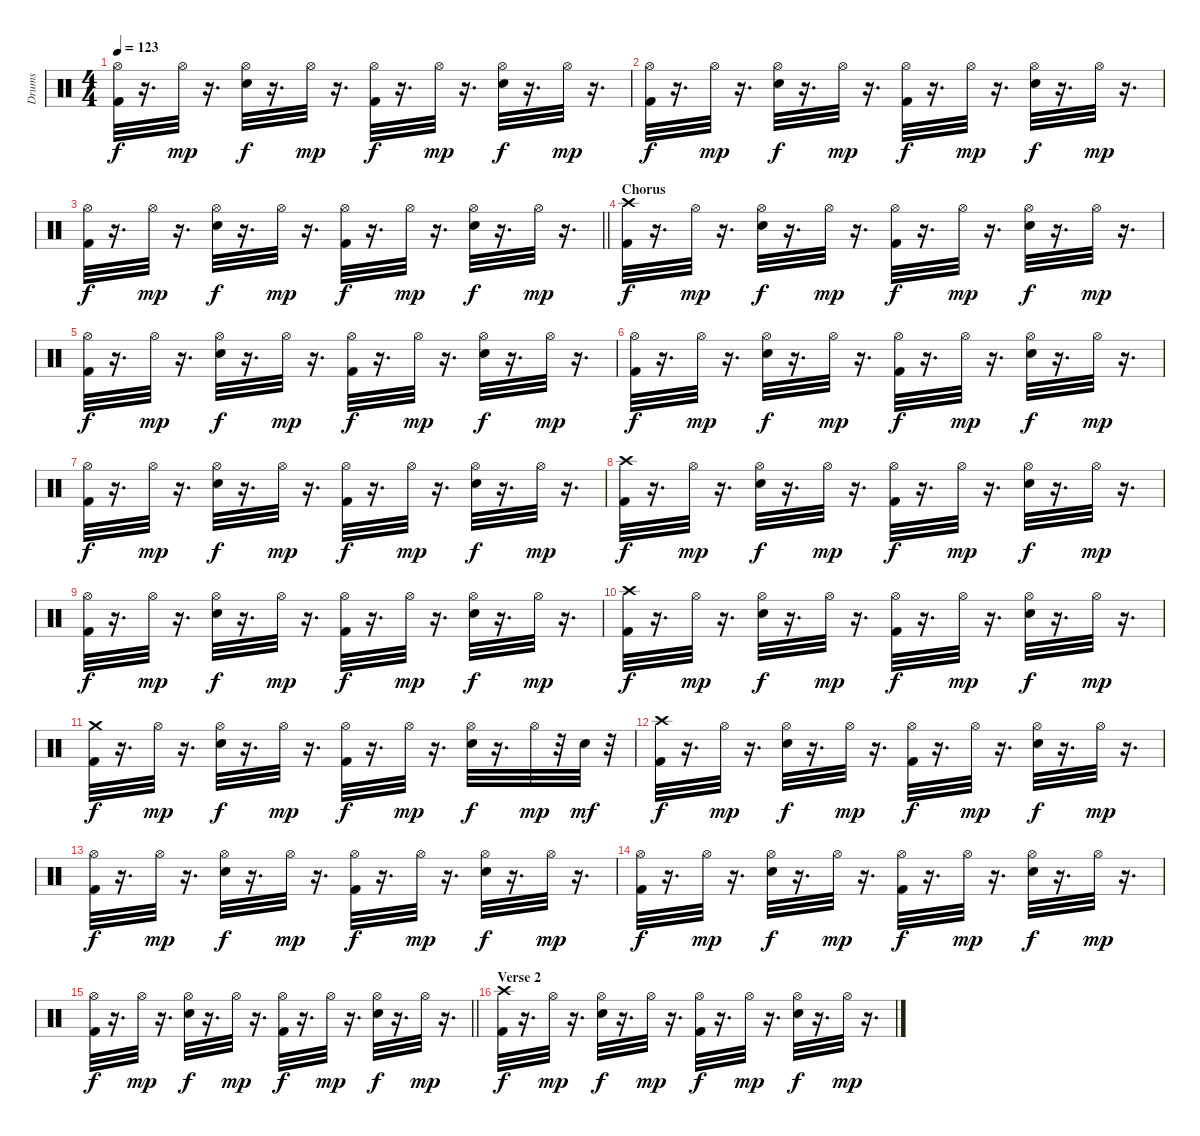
\track ("Drums" "Drums") {instrument percussion}
\staff {score}
\articulation defaults
\ts (4 4)
\tempo 123
\clef neutral
\ks c
("Hi-Hat (open)" "Kick (hit) 2").32{dy f} r.16{d} "Hi-Hat (open)".32{dy mp} r.16{d} ("Hi-Hat (open)" "Electric Snare (hit)").32{dy f} r.16{d} "Hi-Hat (open)".32{dy mp} r.16{d} ("Hi-Hat (open)" "Kick (hit) 2").32{dy f} r.16{d} "Hi-Hat (open)".32{dy mp} r.16{d} ("Hi-Hat (open)" "Electric Snare (hit)").32{dy f} r.16{d} "Hi-Hat (open)".32{dy mp} r.16{d} |
("Hi-Hat (open)" "Kick (hit) 2").32{dy f} r.16{d} "Hi-Hat (open)".32{dy mp} r.16{d} ("Hi-Hat (open)" "Electric Snare (hit)").32{dy f} r.16{d} "Hi-Hat (open)".32{dy mp} r.16{d} ("Hi-Hat (open)" "Kick (hit) 2").32{dy f} r.16{d} "Hi-Hat (open)".32{dy mp} r.16{d} ("Hi-Hat (open)" "Electric Snare (hit)").32{dy f} r.16{d} "Hi-Hat (open)".32{dy mp} r.16{d} |
\barLineRight lightlight
("Hi-Hat (open)" "Kick (hit) 2").32{dy f} r.16{d} "Hi-Hat (open)".32{dy mp} r.16{d} ("Hi-Hat (open)" "Electric Snare (hit)").32{dy f} r.16{d} "Hi-Hat (open)".32{dy mp} r.16{d} ("Hi-Hat (open)" "Kick (hit) 2").32{dy f} r.16{d} "Hi-Hat (open)".32{dy mp} r.16{d} ("Hi-Hat (open)" "Electric Snare (hit)").32{dy f} r.16{d} "Hi-Hat (open)".32{dy mp} r.16{d} |
\section ("" "Chorus ")
("Crash high (hit)" "Kick (hit) 2").32{dy f} r.16{d} "Hi-Hat (open)".32{dy mp} r.16{d} ("Hi-Hat (open)" "Electric Snare (hit)").32{dy f} r.16{d} "Hi-Hat (open)".32{dy mp} r.16{d} ("Kick (hit) 2" "Hi-Hat (open)").32{dy f} r.16{d} "Hi-Hat (open)".32{dy mp} r.16{d} ("Hi-Hat (open)" "Electric Snare (hit)").32{dy f} r.16{d} "Hi-Hat (open)".32{dy mp} r.16{d} |
("Hi-Hat (open)" "Kick (hit) 2").32{dy f} r.16{d} "Hi-Hat (open)".32{dy mp} r.16{d} ("Hi-Hat (open)" "Electric Snare (hit)").32{dy f} r.16{d} "Hi-Hat (open)".32{dy mp} r.16{d} ("Hi-Hat (open)" "Kick (hit) 2").32{dy f} r.16{d} "Hi-Hat (open)".32{dy mp} r.16{d} ("Hi-Hat (open)" "Electric Snare (hit)").32{dy f} r.16{d} "Hi-Hat (open)".32{dy mp} r.16{d} |
("Hi-Hat (open)" "Kick (hit) 2").32{dy f} r.16{d} "Hi-Hat (open)".32{dy mp} r.16{d} ("Hi-Hat (open)" "Electric Snare (hit)").32{dy f} r.16{d} "Hi-Hat (open)".32{dy mp} r.16{d} ("Hi-Hat (open)" "Kick (hit) 2").32{dy f} r.16{d} "Hi-Hat (open)".32{dy mp} r.16{d} ("Hi-Hat (open)" "Electric Snare (hit)").32{dy f} r.16{d} "Hi-Hat (open)".32{dy mp} r.16{d} |
("Hi-Hat (open)" "Kick (hit) 2").32{dy f} r.16{d} "Hi-Hat (open)".32{dy mp} r.16{d} ("Hi-Hat (open)" "Electric Snare (hit)").32{dy f} r.16{d} "Hi-Hat (open)".32{dy mp} r.16{d} ("Hi-Hat (open)" "Kick (hit) 2").32{dy f} r.16{d} "Hi-Hat (open)".32{dy mp} r.16{d} ("Hi-Hat (open)" "Electric Snare (hit)").32{dy f} r.16{d} "Hi-Hat (open)".32{dy mp} r.16{d} |
("Crash high (hit)" "Kick (hit) 2").32{dy f} r.16{d} "Hi-Hat (open)".32{dy mp} r.16{d} ("Hi-Hat (open)" "Electric Snare (hit)").32{dy f} r.16{d} "Hi-Hat (open)".32{dy mp} r.16{d} ("Kick (hit) 2" "Hi-Hat (open)").32{dy f} r.16{d} "Hi-Hat (open)".32{dy mp} r.16{d} ("Hi-Hat (open)" "Electric Snare (hit)").32{dy f} r.16{d} "Hi-Hat (open)".32{dy mp} r.16{d} |
("Hi-Hat (open)" "Kick (hit) 2").32{dy f} r.16{d} "Hi-Hat (open)".32{dy mp} r.16{d} ("Hi-Hat (open)" "Electric Snare (hit)").32{dy f} r.16{d} "Hi-Hat (open)".32{dy mp} r.16{d} ("Hi-Hat (open)" "Kick (hit) 2").32{dy f} r.16{d} "Hi-Hat (open)".32{dy mp} r.16{d} ("Hi-Hat (open)" "Electric Snare (hit)").32{dy f} r.16{d} "Hi-Hat (open)".32{dy mp} r.16{d} |
("Crash high (hit)" "Kick (hit) 2").32{dy f} r.16{d} "Hi-Hat (open)".32{dy mp} r.16{d} ("Hi-Hat (open)" "Electric Snare (hit)").32{dy f} r.16{d} "Hi-Hat (open)".32{dy mp} r.16{d} ("Hi-Hat (open)" "Kick (hit) 2").32{dy f} r.16{d} "Hi-Hat (open)".32{dy mp} r.16{d} ("Hi-Hat (open)" "Electric Snare (hit)").32{dy f} r.16{d} "Hi-Hat (open)".32{dy mp} r.16{d} |
("Crash medium (hit)" "Kick (hit) 2").32{dy f} r.16{d} "Hi-Hat (open)".32{dy mp} r.16{d} ("Hi-Hat (open)" "Electric Snare (hit)").32{dy f} r.16{d} "Hi-Hat (open)".32{dy mp} r.16{d} ("Hi-Hat (open)" "Kick (hit) 2").32{dy f} r.16{d} "Hi-Hat (open)".32{dy mp} r.16{d} ("Hi-Hat (open)" "Electric Snare (hit)").32{dy f} r.16{d} "Hi-Hat (open)".32{dy mp} r.32 "Electric Snare (hit)".32{dy mf} r.32 |
("Crash high (hit)" "Kick (hit) 2").32{dy f} r.16{d} "Hi-Hat (open)".32{dy mp} r.16{d} ("Hi-Hat (open)" "Electric Snare (hit)").32{dy f} r.16{d} "Hi-Hat (open)".32{dy mp} r.16{d} ("Hi-Hat (open)" "Kick (hit) 2").32{dy f} r.16{d} "Hi-Hat (open)".32{dy mp} r.16{d} ("Hi-Hat (open)" "Electric Snare (hit)").32{dy f} r.16{d} "Hi-Hat (open)".32{dy mp} r.16{d} |
("Hi-Hat (open)" "Kick (hit) 2").32{dy f} r.16{d} "Hi-Hat (open)".32{dy mp} r.16{d} ("Hi-Hat (open)" "Electric Snare (hit)").32{dy f} r.16{d} "Hi-Hat (open)".32{dy mp} r.16{d} ("Hi-Hat (open)" "Kick (hit) 2").32{dy f} r.16{d} "Hi-Hat (open)".32{dy mp} r.16{d} ("Hi-Hat (open)" "Electric Snare (hit)").32{dy f} r.16{d} "Hi-Hat (open)".32{dy mp} r.16{d} |
("Hi-Hat (open)" "Kick (hit) 2").32{dy f} r.16{d} "Hi-Hat (open)".32{dy mp} r.16{d} ("Hi-Hat (open)" "Electric Snare (hit)").32{dy f} r.16{d} "Hi-Hat (open)".32{dy mp} r.16{d} ("Hi-Hat (open)" "Kick (hit) 2").32{dy f} r.16{d} "Hi-Hat (open)".32{dy mp} r.16{d} ("Hi-Hat (open)" "Electric Snare (hit)").32{dy f} r.16{d} "Hi-Hat (open)".32{dy mp} r.16{d} |
\barLineRight lightlight
("Hi-Hat (open)" "Kick (hit) 2").32{dy f} r.16{d} "Hi-Hat (open)".32{dy mp} r.16{d} ("Hi-Hat (open)" "Electric Snare (hit)").32{dy f} r.16{d} "Hi-Hat (open)".32{dy mp} r.16{d} ("Hi-Hat (open)" "Kick (hit) 2").32{dy f} r.16{d} "Hi-Hat (open)".32{dy mp} r.16{d} ("Hi-Hat (open)" "Electric Snare (hit)").32{dy f} r.16{d} "Hi-Hat (open)".32{dy mp} r.16{d} |
\section ("" "Verse 2")
("Crash high (hit)" "Kick (hit) 2").32{dy f} r.16{d} "Hi-Hat (open)".32{dy mp} r.16{d} ("Hi-Hat (open)" "Electric Snare (hit)").32{dy f} r.16{d} "Hi-Hat (open)".32{dy mp} r.16{d} ("Kick (hit) 2" "Hi-Hat (open)").32{dy f} r.16{d} "Hi-Hat (open)".32{dy mp} r.16{d} ("Hi-Hat (open)" "Electric Snare (hit)").32{dy f} r.16{d} "Hi-Hat (open)".32{dy mp} r.16{d}
